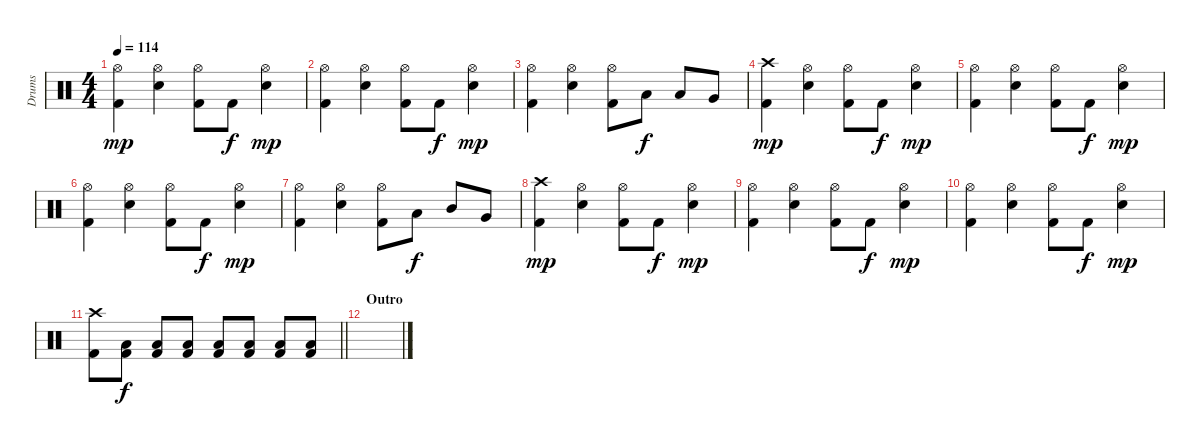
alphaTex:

\track ("Drums" "Drums") {instrument percussion}
\staff {score}
\articulation defaults
\ts (4 4)
\tempo 114
\clef neutral
\ks c
("Hi-Hat (open)" "Kick (hit) 2").4{dy mp} ("Hi-Hat (open)" "Snare (hit) 2").4 ("Hi-Hat (open)" "Kick (hit) 2").8 "Kick (hit) 2".8{dy f} ("Hi-Hat (open)" "Snare (hit) 2").4{dy mp} |
("Hi-Hat (open)" "Kick (hit) 2").4 ("Hi-Hat (open)" "Snare (hit) 2").4 ("Hi-Hat (open)" "Kick (hit) 2").8 "Kick (hit) 2".8{dy f} ("Hi-Hat (open)" "Snare (hit) 2").4{dy mp} |
("Hi-Hat (open)" "Kick (hit) 2").4 ("Hi-Hat (open)" "Snare (hit) 2").4 ("Hi-Hat (open)" "Kick (hit) 2").8 "Low Floor Tom (hit)".8{dy f} "Low Tom (hit)".8 "Very Low Tom (hit)".8 |
("Crash high (hit)" "Kick (hit) 2").4{dy mp} ("Hi-Hat (open)" "Snare (hit) 2").4 ("Hi-Hat (open)" "Kick (hit) 2").8 "Kick (hit) 2".8{dy f} ("Hi-Hat (open)" "Snare (hit) 2").4{dy mp} |
("Hi-Hat (open)" "Kick (hit) 2").4 ("Hi-Hat (open)" "Snare (hit) 2").4 ("Hi-Hat (open)" "Kick (hit) 2").8 "Kick (hit) 2".8{dy f} ("Hi-Hat (open)" "Snare (hit) 2").4{dy mp} |
("Hi-Hat (open)" "Kick (hit) 2").4 ("Hi-Hat (open)" "Snare (hit) 2").4 ("Hi-Hat (open)" "Kick (hit) 2").8 "Kick (hit) 2".8{dy f} ("Hi-Hat (open)" "Snare (hit) 2").4{dy mp} |
("Hi-Hat (open)" "Kick (hit) 2").4 ("Hi-Hat (open)" "Snare (hit) 2").4 ("Hi-Hat (open)" "Kick (hit) 2").8 "Low Floor Tom (hit)".8{dy f} "Mid Tom (hit)".8 "Very Low Tom (hit)".8 |
("Crash high (hit)" "Kick (hit) 2").4{dy mp} ("Hi-Hat (open)" "Snare (hit) 2").4 ("Hi-Hat (open)" "Kick (hit) 2").8 "Kick (hit) 2".8{dy f} ("Hi-Hat (open)" "Snare (hit) 2").4{dy mp} |
("Hi-Hat (open)" "Kick (hit) 2").4 ("Hi-Hat (open)" "Snare (hit) 2").4 ("Hi-Hat (open)" "Kick (hit) 2").8 "Kick (hit) 2".8{dy f} ("Hi-Hat (open)" "Snare (hit) 2").4{dy mp} |
("Hi-Hat (open)" "Kick (hit) 2").4 ("Hi-Hat (open)" "Snare (hit) 2").4 ("Hi-Hat (open)" "Kick (hit) 2").8 "Kick (hit) 2".8{dy f} ("Hi-Hat (open)" "Snare (hit) 2").4{dy mp} |
\barLineRight lightlight
("Crash high (hit)" "Kick (hit) 2").8 ("Low Floor Tom (hit)" "Kick (hit) 2").8{dy f} ("Low Floor Tom (hit)" "Kick (hit) 2").8 ("Low Floor Tom (hit)" "Kick (hit) 2").8 ("Low Floor Tom (hit)" "Kick (hit) 2").8 ("Low Floor Tom (hit)" "Kick (hit) 2").8 ("Low Floor Tom (hit)" "Kick (hit) 2").8 ("Low Floor Tom (hit)" "Kick (hit) 2").8 |
\section ("" "Outro")
